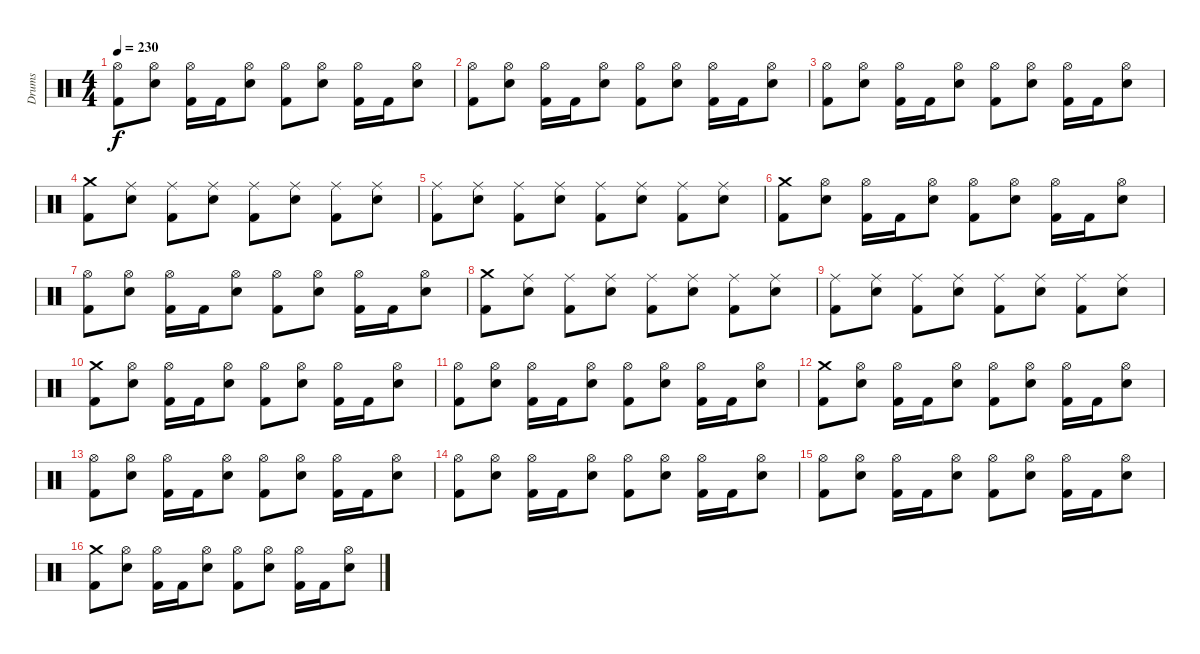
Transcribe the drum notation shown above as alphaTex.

\track ("Drums" "Drums") {instrument percussion}
\staff {score}
\articulation defaults
\ts (4 4)
\tempo 230
\clef neutral
\ks c
("Hi-Hat (open)" "Kick (hit) 2").8{dy f} ("Hi-Hat (open)" "Electric Snare (hit)").8 ("Hi-Hat (open)" "Kick (hit) 2").16 "Kick (hit) 2".16 ("Hi-Hat (open)" "Electric Snare (hit)").8 ("Hi-Hat (open)" "Kick (hit) 2").8 ("Hi-Hat (open)" "Electric Snare (hit)").8 ("Hi-Hat (open)" "Kick (hit) 2").16 "Kick (hit) 2".16 ("Hi-Hat (open)" "Electric Snare (hit)").8 |
("Hi-Hat (open)" "Kick (hit) 2").8 ("Hi-Hat (open)" "Electric Snare (hit)").8 ("Hi-Hat (open)" "Kick (hit) 2").16 "Kick (hit) 2".16 ("Hi-Hat (open)" "Electric Snare (hit)").8 ("Hi-Hat (open)" "Kick (hit) 2").8 ("Hi-Hat (open)" "Electric Snare (hit)").8 ("Hi-Hat (open)" "Kick (hit) 2").16 "Kick (hit) 2".16 ("Hi-Hat (open)" "Electric Snare (hit)").8 |
("Hi-Hat (open)" "Kick (hit) 2").8 ("Hi-Hat (open)" "Electric Snare (hit)").8 ("Hi-Hat (open)" "Kick (hit) 2").16 "Kick (hit) 2".16 ("Hi-Hat (open)" "Electric Snare (hit)").8 ("Hi-Hat (open)" "Kick (hit) 2").8 ("Hi-Hat (open)" "Electric Snare (hit)").8 ("Hi-Hat (open)" "Kick (hit) 2").16 "Kick (hit) 2".16 ("Hi-Hat (open)" "Electric Snare (hit)").8 |
("Crash medium (hit)" "Kick (hit) 2").8 ("Ride (middle)" "Electric Snare (hit)").8 ("Ride (middle)" "Kick (hit) 2").8 ("Ride (middle)" "Electric Snare (hit)").8 ("Ride (middle)" "Kick (hit) 2").8 ("Ride (middle)" "Electric Snare (hit)").8 ("Ride (middle)" "Kick (hit) 2").8 ("Ride (middle)" "Electric Snare (hit)").8 |
("Ride (middle)" "Kick (hit) 2").8 ("Ride (middle)" "Electric Snare (hit)").8 ("Ride (middle)" "Kick (hit) 2").8 ("Ride (middle)" "Electric Snare (hit)").8 ("Ride (middle)" "Kick (hit) 2").8 ("Ride (middle)" "Electric Snare (hit)").8 ("Ride (middle)" "Kick (hit) 2").8 ("Ride (middle)" "Electric Snare (hit)").8 |
("Crash medium (hit)" "Kick (hit) 2").8 ("Hi-Hat (open)" "Electric Snare (hit)").8 ("Hi-Hat (open)" "Kick (hit) 2").16 "Kick (hit) 2".16 ("Hi-Hat (open)" "Electric Snare (hit)").8 ("Hi-Hat (open)" "Kick (hit) 2").8 ("Hi-Hat (open)" "Electric Snare (hit)").8 ("Hi-Hat (open)" "Kick (hit) 2").16 "Kick (hit) 2".16 ("Hi-Hat (open)" "Electric Snare (hit)").8 |
("Hi-Hat (open)" "Kick (hit) 2").8 ("Hi-Hat (open)" "Electric Snare (hit)").8 ("Hi-Hat (open)" "Kick (hit) 2").16 "Kick (hit) 2".16 ("Hi-Hat (open)" "Electric Snare (hit)").8 ("Hi-Hat (open)" "Kick (hit) 2").8 ("Hi-Hat (open)" "Electric Snare (hit)").8 ("Hi-Hat (open)" "Kick (hit) 2").16 "Kick (hit) 2".16 ("Hi-Hat (open)" "Electric Snare (hit)").8 |
("Crash medium (hit)" "Kick (hit) 2").8 ("Ride (middle)" "Electric Snare (hit)").8 ("Ride (middle)" "Kick (hit) 2").8 ("Ride (middle)" "Electric Snare (hit)").8 ("Ride (middle)" "Kick (hit) 2").8 ("Ride (middle)" "Electric Snare (hit)").8 ("Ride (middle)" "Kick (hit) 2").8 ("Ride (middle)" "Electric Snare (hit)").8 |
("Ride (middle)" "Kick (hit) 2").8 ("Ride (middle)" "Electric Snare (hit)").8 ("Ride (middle)" "Kick (hit) 2").8 ("Ride (middle)" "Electric Snare (hit)").8 ("Ride (middle)" "Kick (hit) 2").8 ("Ride (middle)" "Electric Snare (hit)").8 ("Ride (middle)" "Kick (hit) 2").8 ("Ride (middle)" "Electric Snare (hit)").8 |
("Crash medium (hit)" "Kick (hit) 2").8 ("Hi-Hat (open)" "Electric Snare (hit)").8 ("Hi-Hat (open)" "Kick (hit) 2").16 "Kick (hit) 2".16 ("Hi-Hat (open)" "Electric Snare (hit)").8 ("Hi-Hat (open)" "Kick (hit) 2").8 ("Hi-Hat (open)" "Electric Snare (hit)").8 ("Hi-Hat (open)" "Kick (hit) 2").16 "Kick (hit) 2".16 ("Hi-Hat (open)" "Electric Snare (hit)").8 |
("Hi-Hat (open)" "Kick (hit) 2").8 ("Hi-Hat (open)" "Electric Snare (hit)").8 ("Hi-Hat (open)" "Kick (hit) 2").16 "Kick (hit) 2".16 ("Hi-Hat (open)" "Electric Snare (hit)").8 ("Hi-Hat (open)" "Kick (hit) 2").8 ("Hi-Hat (open)" "Electric Snare (hit)").8 ("Hi-Hat (open)" "Kick (hit) 2").16 "Kick (hit) 2".16 ("Hi-Hat (open)" "Electric Snare (hit)").8 |
("Crash medium (hit)" "Kick (hit) 2").8 ("Hi-Hat (open)" "Electric Snare (hit)").8 ("Hi-Hat (open)" "Kick (hit) 2").16 "Kick (hit) 2".16 ("Hi-Hat (open)" "Electric Snare (hit)").8 ("Hi-Hat (open)" "Kick (hit) 2").8 ("Hi-Hat (open)" "Electric Snare (hit)").8 ("Hi-Hat (open)" "Kick (hit) 2").16 "Kick (hit) 2".16 ("Hi-Hat (open)" "Electric Snare (hit)").8 |
("Hi-Hat (open)" "Kick (hit) 2").8 ("Hi-Hat (open)" "Electric Snare (hit)").8 ("Hi-Hat (open)" "Kick (hit) 2").16 "Kick (hit) 2".16 ("Hi-Hat (open)" "Electric Snare (hit)").8 ("Hi-Hat (open)" "Kick (hit) 2").8 ("Hi-Hat (open)" "Electric Snare (hit)").8 ("Hi-Hat (open)" "Kick (hit) 2").16 "Kick (hit) 2".16 ("Hi-Hat (open)" "Electric Snare (hit)").8 |
("Hi-Hat (open)" "Kick (hit) 2").8 ("Hi-Hat (open)" "Electric Snare (hit)").8 ("Hi-Hat (open)" "Kick (hit) 2").16 "Kick (hit) 2".16 ("Hi-Hat (open)" "Electric Snare (hit)").8 ("Hi-Hat (open)" "Kick (hit) 2").8 ("Hi-Hat (open)" "Electric Snare (hit)").8 ("Hi-Hat (open)" "Kick (hit) 2").16 "Kick (hit) 2".16 ("Hi-Hat (open)" "Electric Snare (hit)").8 |
("Hi-Hat (open)" "Kick (hit) 2").8 ("Hi-Hat (open)" "Electric Snare (hit)").8 ("Hi-Hat (open)" "Kick (hit) 2").16 "Kick (hit) 2".16 ("Hi-Hat (open)" "Electric Snare (hit)").8 ("Hi-Hat (open)" "Kick (hit) 2").8 ("Hi-Hat (open)" "Electric Snare (hit)").8 ("Hi-Hat (open)" "Kick (hit) 2").16 "Kick (hit) 2".16 ("Hi-Hat (open)" "Electric Snare (hit)").8 |
("Crash medium (hit)" "Kick (hit) 2").8 ("Hi-Hat (open)" "Electric Snare (hit)").8 ("Hi-Hat (open)" "Kick (hit) 2").16 "Kick (hit) 2".16 ("Hi-Hat (open)" "Electric Snare (hit)").8 ("Hi-Hat (open)" "Kick (hit) 2").8 ("Hi-Hat (open)" "Electric Snare (hit)").8 ("Hi-Hat (open)" "Kick (hit) 2").16 "Kick (hit) 2".16 ("Hi-Hat (open)" "Electric Snare (hit)").8
